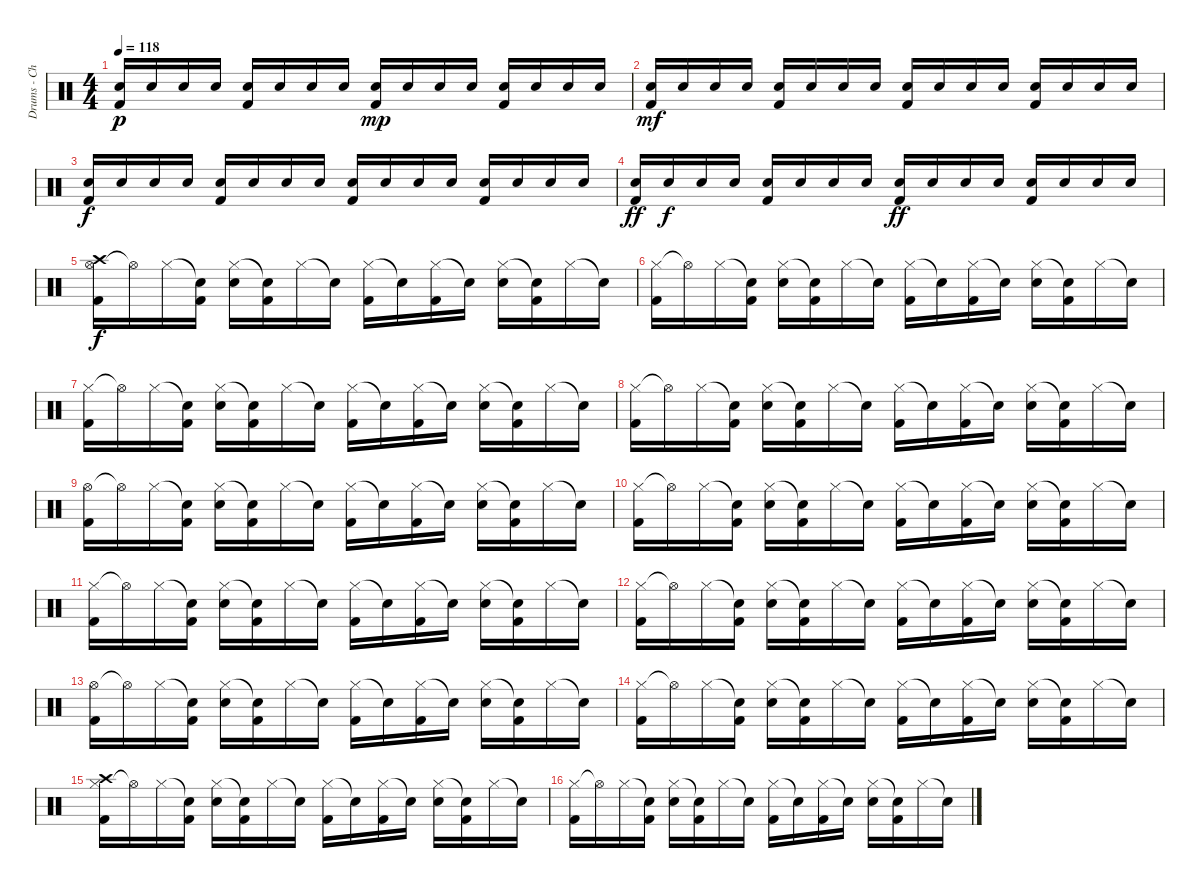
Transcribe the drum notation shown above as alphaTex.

\track ("Drums - Chad" "Drums - Ch") {instrument percussion}
\staff {score}
\articulation defaults
\ts (4 4)
\tempo 118
\clef neutral
\ks c
("Kick (hit) 2" "Electric Snare (hit)").16{dy p} "Electric Snare (hit)".16 "Electric Snare (hit)".16 "Electric Snare (hit)".16 ("Kick (hit) 2" "Electric Snare (hit)").16 "Electric Snare (hit)".16 "Electric Snare (hit)".16 "Electric Snare (hit)".16 ("Kick (hit) 2" "Electric Snare (hit)").16{dy mp} "Electric Snare (hit)".16 "Electric Snare (hit)".16 "Electric Snare (hit)".16 ("Kick (hit) 2" "Electric Snare (hit)").16 "Electric Snare (hit)".16 "Electric Snare (hit)".16 "Electric Snare (hit)".16 |
("Kick (hit) 2" "Electric Snare (hit)").16{dy mf} "Electric Snare (hit)".16 "Electric Snare (hit)".16 "Electric Snare (hit)".16 ("Kick (hit) 2" "Electric Snare (hit)").16 "Electric Snare (hit)".16 "Electric Snare (hit)".16 "Electric Snare (hit)".16 ("Kick (hit) 2" "Electric Snare (hit)").16 "Electric Snare (hit)".16 "Electric Snare (hit)".16 "Electric Snare (hit)".16 ("Kick (hit) 2" "Electric Snare (hit)").16 "Electric Snare (hit)".16 "Electric Snare (hit)".16 "Electric Snare (hit)".16 |
("Kick (hit) 2" "Electric Snare (hit)").16{dy f} "Electric Snare (hit)".16 "Electric Snare (hit)".16 "Electric Snare (hit)".16 ("Kick (hit) 2" "Electric Snare (hit)").16 "Electric Snare (hit)".16 "Electric Snare (hit)".16 "Electric Snare (hit)".16 ("Kick (hit) 2" "Electric Snare (hit)").16 "Electric Snare (hit)".16 "Electric Snare (hit)".16 "Electric Snare (hit)".16 ("Kick (hit) 2" "Electric Snare (hit)").16 "Electric Snare (hit)".16 "Electric Snare (hit)".16 "Electric Snare (hit)".16 |
("Kick (hit) 2" "Electric Snare (hit)").16{dy ff} "Electric Snare (hit)".16{dy f} "Electric Snare (hit)".16 "Electric Snare (hit)".16 ("Kick (hit) 2" "Electric Snare (hit)").16 "Electric Snare (hit)".16 "Electric Snare (hit)".16 "Electric Snare (hit)".16 ("Kick (hit) 2" "Electric Snare (hit)").16{dy ff} "Electric Snare (hit)".16 "Electric Snare (hit)".16 "Electric Snare (hit)".16 ("Kick (hit) 2" "Electric Snare (hit)").16 "Electric Snare (hit)".16 "Electric Snare (hit)".16 "Electric Snare (hit)".16 |
("Hi-Hat (open)" "Kick (hit) 2" "Crash high (hit)").16{dy f} "Hi-Hat (open)"{t}.16 "Hi-Hat (closed)".16 ("Snare (hit)"{t} "Kick (hit) 2").16 ("Hi-Hat (closed)" "Electric Snare (hit)").16 ("Snare (hit)"{t} "Kick (hit) 2").16 "Hi-Hat (closed)".16 "Snare (hit)"{t}.16 ("Hi-Hat (closed)" "Kick (hit) 2").16 "Snare (hit)"{t}.16 ("Hi-Hat (closed)" "Kick (hit) 2").16 "Snare (hit)"{t}.16 ("Hi-Hat (closed)" "Electric Snare (hit)").16 ("Snare (hit)"{t} "Kick (hit) 2").16 "Hi-Hat (closed)".16 "Snare (hit)"{t}.16 |
("Hi-Hat (closed)" "Kick (hit) 2").16 "Hi-Hat (open)"{t}.16 "Hi-Hat (closed)".16 ("Snare (hit)"{t} "Kick (hit) 2").16 ("Hi-Hat (closed)" "Electric Snare (hit)").16 ("Snare (hit)"{t} "Kick (hit) 2").16 "Hi-Hat (closed)".16 "Snare (hit)"{t}.16 ("Hi-Hat (closed)" "Kick (hit) 2").16 "Snare (hit)"{t}.16 ("Hi-Hat (closed)" "Kick (hit) 2").16 "Snare (hit)"{t}.16 ("Hi-Hat (closed)" "Electric Snare (hit)").16 ("Snare (hit)"{t} "Kick (hit) 2").16 "Hi-Hat (closed)".16 "Snare (hit)"{t}.16 |
("Hi-Hat (closed)" "Kick (hit) 2").16 "Hi-Hat (open)"{t}.16 "Hi-Hat (closed)".16 ("Snare (hit)"{t} "Kick (hit) 2").16 ("Hi-Hat (closed)" "Electric Snare (hit)").16 ("Snare (hit)"{t} "Kick (hit) 2").16 "Hi-Hat (closed)".16 "Snare (hit)"{t}.16 ("Hi-Hat (closed)" "Kick (hit) 2").16 "Snare (hit)"{t}.16 ("Hi-Hat (closed)" "Kick (hit) 2").16 "Snare (hit)"{t}.16 ("Hi-Hat (closed)" "Electric Snare (hit)").16 ("Snare (hit)"{t} "Kick (hit) 2").16 "Hi-Hat (closed)".16 "Snare (hit)"{t}.16 |
("Hi-Hat (closed)" "Kick (hit) 2").16 "Hi-Hat (open)"{t}.16 "Hi-Hat (closed)".16 ("Snare (hit)"{t} "Kick (hit) 2").16 ("Hi-Hat (closed)" "Electric Snare (hit)").16 ("Snare (hit)"{t} "Kick (hit) 2").16 "Hi-Hat (closed)".16 "Snare (hit)"{t}.16 ("Hi-Hat (closed)" "Kick (hit) 2").16 "Snare (hit)"{t}.16 ("Hi-Hat (closed)" "Kick (hit) 2").16 "Snare (hit)"{t}.16 ("Hi-Hat (closed)" "Electric Snare (hit)").16 ("Snare (hit)"{t} "Kick (hit) 2").16 "Hi-Hat (closed)".16 "Snare (hit)"{t}.16 |
("Hi-Hat (open)" "Kick (hit) 2").16 "Hi-Hat (open)"{t}.16 "Hi-Hat (closed)".16 ("Snare (hit)"{t} "Kick (hit) 2").16 ("Hi-Hat (closed)" "Electric Snare (hit)").16 ("Snare (hit)"{t} "Kick (hit) 2").16 "Hi-Hat (closed)".16 "Snare (hit)"{t}.16 ("Hi-Hat (closed)" "Kick (hit) 2").16 "Snare (hit)"{t}.16 ("Hi-Hat (closed)" "Kick (hit) 2").16 "Snare (hit)"{t}.16 ("Hi-Hat (closed)" "Electric Snare (hit)").16 ("Snare (hit)"{t} "Kick (hit) 2").16 "Hi-Hat (closed)".16 "Snare (hit)"{t}.16 |
("Hi-Hat (closed)" "Kick (hit) 2").16 "Hi-Hat (open)"{t}.16 "Hi-Hat (closed)".16 ("Snare (hit)"{t} "Kick (hit) 2").16 ("Hi-Hat (closed)" "Electric Snare (hit)").16 ("Snare (hit)"{t} "Kick (hit) 2").16 "Hi-Hat (closed)".16 "Snare (hit)"{t}.16 ("Hi-Hat (closed)" "Kick (hit) 2").16 "Snare (hit)"{t}.16 ("Hi-Hat (closed)" "Kick (hit) 2").16 "Snare (hit)"{t}.16 ("Hi-Hat (closed)" "Electric Snare (hit)").16 ("Snare (hit)"{t} "Kick (hit) 2").16 "Hi-Hat (closed)".16 "Snare (hit)"{t}.16 |
("Hi-Hat (closed)" "Kick (hit) 2").16 "Hi-Hat (open)"{t}.16 "Hi-Hat (closed)".16 ("Snare (hit)"{t} "Kick (hit) 2").16 ("Hi-Hat (closed)" "Electric Snare (hit)").16 ("Snare (hit)"{t} "Kick (hit) 2").16 "Hi-Hat (closed)".16 "Snare (hit)"{t}.16 ("Hi-Hat (closed)" "Kick (hit) 2").16 "Snare (hit)"{t}.16 ("Hi-Hat (closed)" "Kick (hit) 2").16 "Snare (hit)"{t}.16 ("Hi-Hat (closed)" "Electric Snare (hit)").16 ("Snare (hit)"{t} "Kick (hit) 2").16 "Hi-Hat (closed)".16 "Snare (hit)"{t}.16 |
("Hi-Hat (closed)" "Kick (hit) 2").16 "Hi-Hat (open)"{t}.16 "Hi-Hat (closed)".16 ("Snare (hit)"{t} "Kick (hit) 2").16 ("Hi-Hat (closed)" "Electric Snare (hit)").16 ("Snare (hit)"{t} "Kick (hit) 2").16 "Hi-Hat (closed)".16 "Snare (hit)"{t}.16 ("Hi-Hat (closed)" "Kick (hit) 2").16 "Snare (hit)"{t}.16 ("Hi-Hat (closed)" "Kick (hit) 2").16 "Snare (hit)"{t}.16 ("Hi-Hat (closed)" "Electric Snare (hit)").16 ("Snare (hit)"{t} "Kick (hit) 2").16 "Hi-Hat (closed)".16 "Snare (hit)"{t}.16 |
("Hi-Hat (open)" "Kick (hit) 2").16 "Hi-Hat (open)"{t}.16 "Hi-Hat (closed)".16 ("Snare (hit)"{t} "Kick (hit) 2").16 ("Hi-Hat (closed)" "Electric Snare (hit)").16 ("Snare (hit)"{t} "Kick (hit) 2").16 "Hi-Hat (closed)".16 "Snare (hit)"{t}.16 ("Hi-Hat (closed)" "Kick (hit) 2").16 "Snare (hit)"{t}.16 ("Hi-Hat (closed)" "Kick (hit) 2").16 "Snare (hit)"{t}.16 ("Hi-Hat (closed)" "Electric Snare (hit)").16 ("Snare (hit)"{t} "Kick (hit) 2").16 "Hi-Hat (closed)".16 "Snare (hit)"{t}.16 |
("Hi-Hat (closed)" "Kick (hit) 2").16 "Hi-Hat (open)"{t}.16 "Hi-Hat (closed)".16 ("Snare (hit)"{t} "Kick (hit) 2").16 ("Hi-Hat (closed)" "Electric Snare (hit)").16 ("Snare (hit)"{t} "Kick (hit) 2").16 "Hi-Hat (closed)".16 "Snare (hit)"{t}.16 ("Hi-Hat (closed)" "Kick (hit) 2").16 "Snare (hit)"{t}.16 ("Hi-Hat (closed)" "Kick (hit) 2").16 "Snare (hit)"{t}.16 ("Hi-Hat (closed)" "Electric Snare (hit)").16 ("Snare (hit)"{t} "Kick (hit) 2").16 "Hi-Hat (closed)".16 "Snare (hit)"{t}.16 |
("Hi-Hat (closed)" "Kick (hit) 2" "Crash high (hit)").16 "Hi-Hat (open)"{t}.16 "Hi-Hat (closed)".16 ("Snare (hit)"{t} "Kick (hit) 2").16 ("Hi-Hat (closed)" "Electric Snare (hit)").16 ("Snare (hit)"{t} "Kick (hit) 2").16 "Hi-Hat (closed)".16 "Snare (hit)"{t}.16 ("Hi-Hat (closed)" "Kick (hit) 2").16 "Snare (hit)"{t}.16 ("Hi-Hat (closed)" "Kick (hit) 2").16 "Snare (hit)"{t}.16 ("Hi-Hat (closed)" "Electric Snare (hit)").16 ("Snare (hit)"{t} "Kick (hit) 2").16 "Hi-Hat (closed)".16 "Snare (hit)"{t}.16 |
("Hi-Hat (closed)" "Kick (hit) 2").16 "Hi-Hat (open)"{t}.16 "Hi-Hat (closed)".16 ("Snare (hit)"{t} "Kick (hit) 2").16 ("Hi-Hat (closed)" "Electric Snare (hit)").16 ("Snare (hit)"{t} "Kick (hit) 2").16 "Hi-Hat (closed)".16 "Snare (hit)"{t}.16 ("Hi-Hat (closed)" "Kick (hit) 2").16 "Snare (hit)"{t}.16 ("Hi-Hat (closed)" "Kick (hit) 2").16 "Snare (hit)"{t}.16 ("Hi-Hat (closed)" "Electric Snare (hit)").16 ("Snare (hit)"{t} "Kick (hit) 2").16 "Hi-Hat (closed)".16 "Snare (hit)"{t}.16
